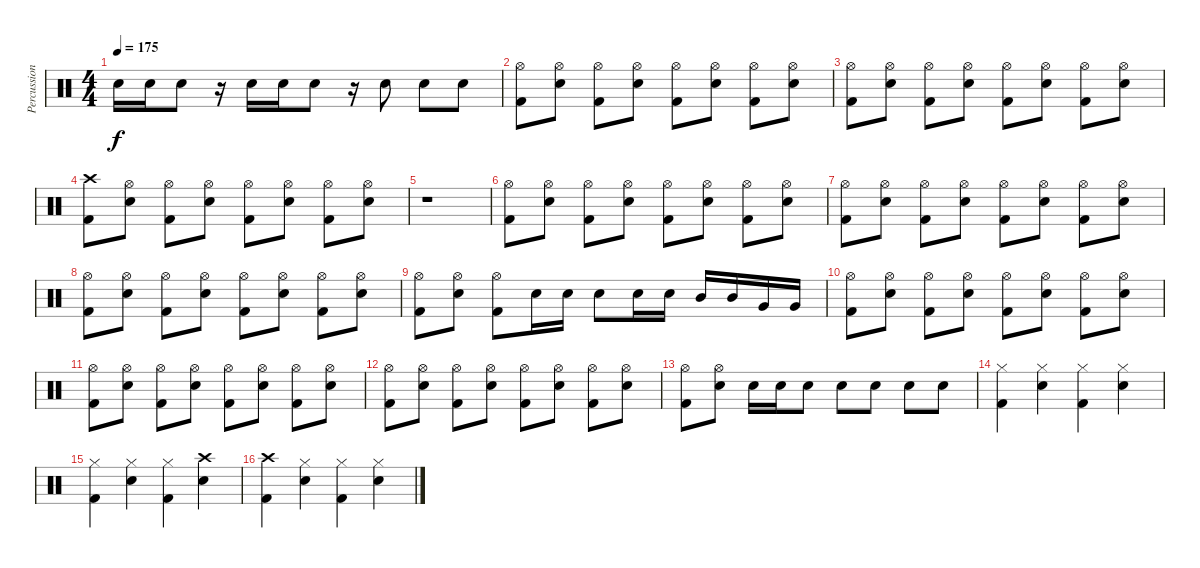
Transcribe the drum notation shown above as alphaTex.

\track ("Percussion" "Percussion") {instrument percussion}
\staff {score}
\articulation defaults
\ts (4 4)
\tempo 175
\clef neutral
\ks c "Electric Snare (hit)".16{dy f} "Electric Snare (hit)".16 "Electric Snare (hit)".8
r.16 "Electric Snare (hit)".16 "Electric Snare (hit)".16 "Electric Snare (hit)".8 r.16 "Electric Snare (hit)".8 "Electric Snare (hit)".8 "Electric Snare (hit)".8 |
("Hi-Hat (open)" "Kick (hit) 2").8 ("Hi-Hat (open)" "Electric Snare (hit)").8 ("Hi-Hat (open)" "Kick (hit) 2").8 ("Hi-Hat (open)" "Electric Snare (hit)").8 ("Hi-Hat (open)" "Kick (hit) 2").8 ("Hi-Hat (open)" "Electric Snare (hit)").8 ("Hi-Hat (open)" "Kick (hit) 2").8 ("Hi-Hat (open)" "Electric Snare (hit)").8 |
("Hi-Hat (open)" "Kick (hit) 2").8 ("Hi-Hat (open)" "Electric Snare (hit)").8 ("Hi-Hat (open)" "Kick (hit) 2").8 ("Hi-Hat (open)" "Electric Snare (hit)").8 ("Hi-Hat (open)" "Kick (hit) 2").8 ("Hi-Hat (open)" "Electric Snare (hit)").8 ("Hi-Hat (open)" "Kick (hit) 2").8 ("Hi-Hat (open)" "Electric Snare (hit)").8 |
("Crash high (hit)" "Kick (hit) 2").8 ("Hi-Hat (open)" "Electric Snare (hit)").8 ("Hi-Hat (open)" "Kick (hit) 2").8 ("Hi-Hat (open)" "Electric Snare (hit)").8 ("Hi-Hat (open)" "Kick (hit) 2").8 ("Hi-Hat (open)" "Electric Snare (hit)").8 ("Hi-Hat (open)" "Kick (hit) 2").8 ("Hi-Hat (open)" "Electric Snare (hit)").8 |
r.1 |
("Hi-Hat (open)" "Kick (hit) 2").8 ("Hi-Hat (open)" "Electric Snare (hit)").8 ("Hi-Hat (open)" "Kick (hit) 2").8 ("Hi-Hat (open)" "Electric Snare (hit)").8 ("Hi-Hat (open)" "Kick (hit) 2").8 ("Hi-Hat (open)" "Electric Snare (hit)").8 ("Hi-Hat (open)" "Kick (hit) 2").8 ("Hi-Hat (open)" "Electric Snare (hit)").8 |
("Hi-Hat (open)" "Kick (hit) 2").8 ("Hi-Hat (open)" "Electric Snare (hit)").8 ("Hi-Hat (open)" "Kick (hit) 2").8 ("Hi-Hat (open)" "Electric Snare (hit)").8 ("Hi-Hat (open)" "Kick (hit) 2").8 ("Hi-Hat (open)" "Electric Snare (hit)").8 ("Hi-Hat (open)" "Kick (hit) 2").8 ("Hi-Hat (open)" "Electric Snare (hit)").8 |
("Hi-Hat (open)" "Kick (hit) 2").8 ("Hi-Hat (open)" "Electric Snare (hit)").8 ("Hi-Hat (open)" "Kick (hit) 2").8 ("Hi-Hat (open)" "Electric Snare (hit)").8 ("Hi-Hat (open)" "Kick (hit) 2").8 ("Hi-Hat (open)" "Electric Snare (hit)").8 ("Hi-Hat (open)" "Kick (hit) 2").8 ("Hi-Hat (open)" "Electric Snare (hit)").8 |
("Hi-Hat (open)" "Kick (hit) 2").8 ("Hi-Hat (open)" "Electric Snare (hit)").8 ("Hi-Hat (open)" "Kick (hit) 2").8 "Electric Snare (hit)".16 "Electric Snare (hit)".16 "Electric Snare (hit)".8 "Electric Snare (hit)".16 "Electric Snare (hit)".16 "Mid Tom (hit)".16 "Mid Tom (hit)".16 "Very Low Tom (hit)".16 "Very Low Tom (hit)".16 |
("Hi-Hat (open)" "Kick (hit) 2").8 ("Hi-Hat (open)" "Electric Snare (hit)").8 ("Hi-Hat (open)" "Kick (hit) 2").8 ("Hi-Hat (open)" "Electric Snare (hit)").8 ("Hi-Hat (open)" "Kick (hit) 2").8 ("Hi-Hat (open)" "Electric Snare (hit)").8 ("Hi-Hat (open)" "Kick (hit) 2").8 ("Hi-Hat (open)" "Electric Snare (hit)").8 |
("Hi-Hat (open)" "Kick (hit) 2").8 ("Hi-Hat (open)" "Electric Snare (hit)").8 ("Hi-Hat (open)" "Kick (hit) 2").8 ("Hi-Hat (open)" "Electric Snare (hit)").8 ("Hi-Hat (open)" "Kick (hit) 2").8 ("Hi-Hat (open)" "Electric Snare (hit)").8 ("Hi-Hat (open)" "Kick (hit) 2").8 ("Hi-Hat (open)" "Electric Snare (hit)").8 |
("Hi-Hat (open)" "Kick (hit) 2").8 ("Hi-Hat (open)" "Electric Snare (hit)").8 ("Hi-Hat (open)" "Kick (hit) 2").8 ("Hi-Hat (open)" "Electric Snare (hit)").8 ("Hi-Hat (open)" "Kick (hit) 2").8 ("Hi-Hat (open)" "Electric Snare (hit)").8 ("Hi-Hat (open)" "Kick (hit) 2").8 ("Hi-Hat (open)" "Electric Snare (hit)").8 |
("Hi-Hat (open)" "Kick (hit) 2").8 ("Hi-Hat (open)" "Electric Snare (hit)").8 "Electric Snare (hit)".16 "Electric Snare (hit)".16 "Electric Snare (hit)".8 "Electric Snare (hit)".8 "Electric Snare (hit)".8 "Electric Snare (hit)".8 "Electric Snare (hit)".8 |
("Hi-Hat (closed)" "Kick (hit) 2").4 ("Hi-Hat (closed)" "Electric Snare (hit)").4 ("Hi-Hat (closed)" "Kick (hit) 2").4 ("Hi-Hat (closed)" "Electric Snare (hit)").4 |
("Hi-Hat (closed)" "Kick (hit) 2").4 ("Hi-Hat (closed)" "Electric Snare (hit)").4 ("Hi-Hat (closed)" "Kick (hit) 2").4 ("Crash high (hit)" "Electric Snare (hit)").4 |
("Crash high (hit)" "Kick (hit) 2").4 ("Hi-Hat (closed)" "Electric Snare (hit)").4 ("Hi-Hat (closed)" "Kick (hit) 2").4 ("Hi-Hat (closed)" "Electric Snare (hit)").4
